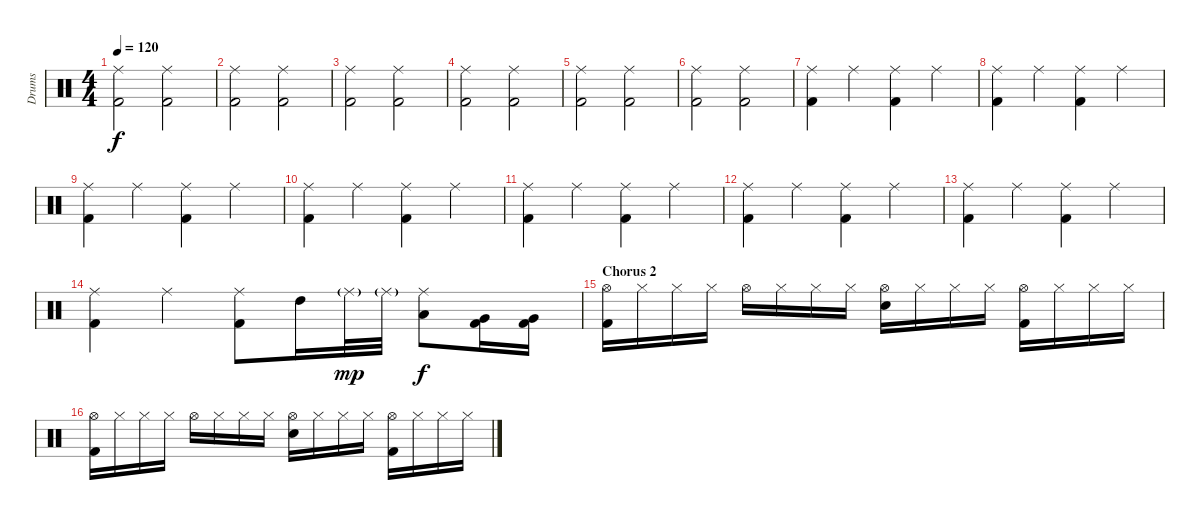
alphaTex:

\track ("Drums" "Drums") {instrument percussion}
\staff {score}
\articulation defaults
\ts (4 4)
\tempo 120
\clef neutral
\ks c
("Ride (middle)" "Kick (hit) 2").2{dy f} ("Ride (middle)" "Kick (hit) 2").2 |
("Ride (middle)" "Kick (hit) 2").2 ("Ride (middle)" "Kick (hit) 2").2 |
("Ride (middle)" "Kick (hit) 2").2 ("Ride (middle)" "Kick (hit) 2").2 |
("Ride (middle)" "Kick (hit) 2").2 ("Ride (middle)" "Kick (hit) 2").2 |
("Ride (middle)" "Kick (hit) 2").2 ("Ride (middle)" "Kick (hit) 2").2 |
("Ride (middle)" "Kick (hit) 2").2 ("Ride (middle)" "Kick (hit) 2").2 |
("Ride (middle)" "Kick (hit) 2").4 "Ride (middle)".4 ("Ride (middle)" "Kick (hit) 2").4 "Ride (middle)".4 |
("Ride (middle)" "Kick (hit) 2").4 "Ride (middle)".4 ("Ride (middle)" "Kick (hit) 2").4 "Ride (middle)".4 |
("Ride (middle)" "Kick (hit) 2").4 "Ride (middle)".4 ("Ride (middle)" "Kick (hit) 2").4 "Ride (middle)".4 |
("Ride (middle)" "Kick (hit) 2").4 "Ride (middle)".4 ("Ride (middle)" "Kick (hit) 2").4 "Ride (middle)".4 |
("Ride (middle)" "Kick (hit) 2").4 "Ride (middle)".4 ("Ride (middle)" "Kick (hit) 2").4 "Ride (middle)".4 |
("Ride (middle)" "Kick (hit) 2").4 "Ride (middle)".4 ("Ride (middle)" "Kick (hit) 2").4 "Ride (middle)".4 |
("Ride (middle)" "Kick (hit) 2").4 "Ride (middle)".4 ("Ride (middle)" "Kick (hit) 2").4 "Ride (middle)".4 |
("Ride (middle)" "Kick (hit) 2").4 "Ride (middle)".4 ("Ride (middle)" "Kick (hit) 2").8 "High Tom (hit)".16 "Ride (middle)"{g}.32{dy mp} "Ride (middle)"{g}.32 ("Ride (middle)" "Low Tom (hit)").8{dy f} ("Very Low Tom (hit)" "Kick (hit) 2").16 ("Very Low Tom (hit)" "Kick (hit) 2").16 |
\section ("" "Chorus 2")
("Hi-Hat (open)" "Kick (hit) 2").16 "Hi-Hat (closed)".16 "Hi-Hat (closed)".16 "Hi-Hat (closed)".16 "Hi-Hat (open)".16 "Hi-Hat (closed)".16 "Hi-Hat (closed)".16 "Hi-Hat (closed)".16 ("Hi-Hat (open)" "Snare (hit) 2").16 "Hi-Hat (closed)".16 "Hi-Hat (closed)".16 "Hi-Hat (closed)".16 ("Hi-Hat (open)" "Kick (hit) 2").16 "Hi-Hat (closed)".16 "Hi-Hat (closed)".16 "Hi-Hat (closed)".16 |
("Hi-Hat (open)" "Kick (hit) 2").16 "Hi-Hat (closed)".16 "Hi-Hat (closed)".16 "Hi-Hat (closed)".16 "Hi-Hat (open)".16 "Hi-Hat (closed)".16 "Hi-Hat (closed)".16 "Hi-Hat (closed)".16 ("Hi-Hat (open)" "Snare (hit) 2").16 "Hi-Hat (closed)".16 "Hi-Hat (closed)".16 "Hi-Hat (closed)".16 ("Hi-Hat (open)" "Kick (hit) 2").16 "Hi-Hat (closed)".16 "Hi-Hat (closed)".16 "Hi-Hat (closed)".16
